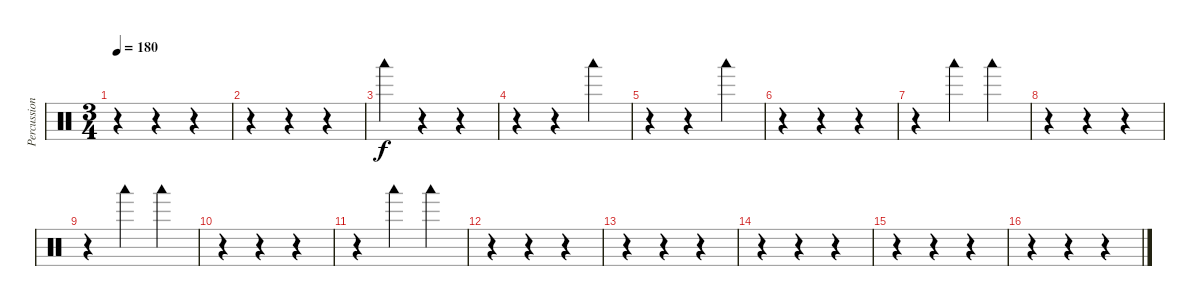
\track ("Percussions" "Percussion") {instrument percussion}
\staff {score}
\articulation defaults
\ts (3 4)
\tempo 180
\clef neutral
\ks c
r.4{dy f} r.4 r.4 |
r.4 r.4 r.4 |
"Woodblock low (hit)".4 r.4 r.4 |
r.4 r.4 "Woodblock low (hit)".4 |
r.4 r.4 "Woodblock low (hit)".4 |
r.4 r.4 r.4 |
r.4 "Woodblock low (hit)".4 "Woodblock low (hit)".4 |
r.4 r.4 r.4 |
r.4 "Woodblock low (hit)".4 "Woodblock low (hit)".4 |
r.4 r.4 r.4 |
r.4 "Woodblock low (hit)".4 "Woodblock low (hit)".4 |
r.4 r.4 r.4 |
r.4 r.4 r.4 |
r.4 r.4 r.4 |
r.4 r.4 r.4 |
r.4 r.4 r.4
